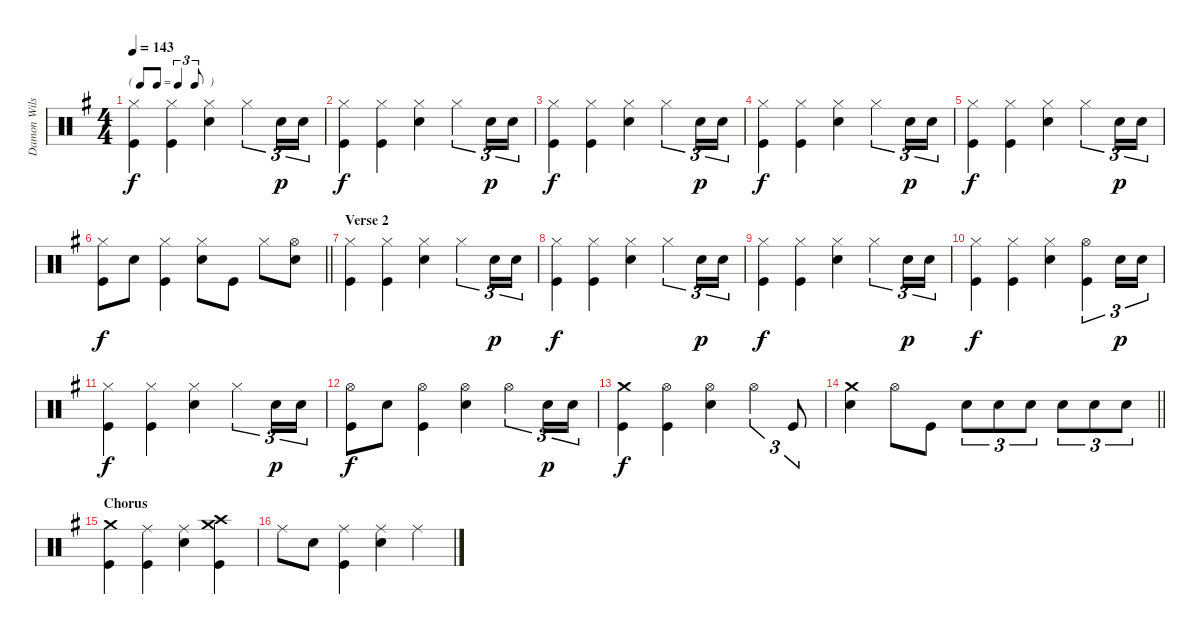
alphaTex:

\track ("Damon Wilson" "Damon Wils") {instrument percussion}
\staff {score}
\articulation defaults
\ts (4 4)
\tf triplet8th
\tempo 143
\clef neutral
\ks g
("Hi-Hat (closed)" "Kick (hit)").4{dy f} ("Hi-Hat (closed)" "Kick (hit)").4 ("Hi-Hat (closed)" "Electric Snare (hit)").4 "Hi-Hat (closed)".4{tu (3 2)} "Electric Snare (hit)".16{tu (3 2) dy p} "Electric Snare (hit)".16{tu (3 2)} |
("Hi-Hat (closed)" "Kick (hit)").4{dy f} ("Hi-Hat (closed)" "Kick (hit)").4 ("Hi-Hat (closed)" "Electric Snare (hit)").4 "Hi-Hat (closed)".4{tu (3 2)} "Electric Snare (hit)".16{tu (3 2) dy p} "Electric Snare (hit)".16{tu (3 2)} |
("Hi-Hat (closed)" "Kick (hit)").4{dy f} ("Hi-Hat (closed)" "Kick (hit)").4 ("Hi-Hat (closed)" "Electric Snare (hit)").4 "Hi-Hat (closed)".4{tu (3 2)} "Electric Snare (hit)".16{tu (3 2) dy p} "Electric Snare (hit)".16{tu (3 2)} |
("Hi-Hat (closed)" "Kick (hit)").4{dy f} ("Hi-Hat (closed)" "Kick (hit)").4 ("Hi-Hat (closed)" "Electric Snare (hit)").4 "Hi-Hat (closed)".4{tu (3 2)} "Electric Snare (hit)".16{tu (3 2) dy p} "Electric Snare (hit)".16{tu (3 2)} |
("Hi-Hat (closed)" "Kick (hit)").4{dy f} ("Hi-Hat (closed)" "Kick (hit)").4 ("Hi-Hat (closed)" "Electric Snare (hit)").4 "Hi-Hat (closed)".4{tu (3 2)} "Electric Snare (hit)".16{tu (3 2) dy p} "Electric Snare (hit)".16{tu (3 2)} |
\barLineRight lightlight
("Hi-Hat (closed)" "Kick (hit)").8{dy f} "Electric Snare (hit)".8 ("Hi-Hat (closed)" "Kick (hit)").4 ("Hi-Hat (closed)" "Electric Snare (hit)").8 "Kick (hit)".8 "Hi-Hat (closed)".8 ("Hi-Hat (open)" "Electric Snare (hit)").8 |
\section ("" "Verse 2")
("Hi-Hat (closed)" "Kick (hit)").4 ("Hi-Hat (closed)" "Kick (hit)").4 ("Hi-Hat (closed)" "Electric Snare (hit)").4 "Hi-Hat (closed)".4{tu (3 2)} "Electric Snare (hit)".16{tu (3 2) dy p} "Electric Snare (hit)".16{tu (3 2)} |
("Hi-Hat (closed)" "Kick (hit)").4{dy f} ("Hi-Hat (closed)" "Kick (hit)").4 ("Hi-Hat (closed)" "Electric Snare (hit)").4 "Hi-Hat (closed)".4{tu (3 2)} "Electric Snare (hit)".16{tu (3 2) dy p} "Electric Snare (hit)".16{tu (3 2)} |
("Hi-Hat (closed)" "Kick (hit)").4{dy f} ("Hi-Hat (closed)" "Kick (hit)").4 ("Hi-Hat (closed)" "Electric Snare (hit)").4 "Hi-Hat (closed)".4{tu (3 2)} "Electric Snare (hit)".16{tu (3 2) dy p} "Electric Snare (hit)".16{tu (3 2)} |
("Hi-Hat (closed)" "Kick (hit)").4{dy f} ("Hi-Hat (closed)" "Kick (hit)").4 ("Hi-Hat (closed)" "Electric Snare (hit)").4 ("Hi-Hat (open)" "Kick (hit)").4{tu (3 2)} "Electric Snare (hit)".16{tu (3 2) dy p} "Electric Snare (hit)".16{tu (3 2)} |
("Hi-Hat (closed)" "Kick (hit)").4{dy f} ("Hi-Hat (closed)" "Kick (hit)").4 ("Hi-Hat (closed)" "Electric Snare (hit)").4 "Hi-Hat (closed)".4{tu (3 2)} "Electric Snare (hit)".16{tu (3 2) dy p} "Electric Snare (hit)".16{tu (3 2)} |
("Hi-Hat (open)" "Kick (hit)").8{dy f} "Electric Snare (hit)".8 ("Hi-Hat (open)" "Kick (hit)").4 ("Hi-Hat (open)" "Electric Snare (hit)").4 "Hi-Hat (open)".4{tu (3 2)} "Electric Snare (hit)".16{tu (3 2) dy p} "Electric Snare (hit)".16{tu (3 2)} |
("Crash medium (hit)" "Kick (hit)").4{dy f} ("Hi-Hat (open)" "Kick (hit)").4 ("Hi-Hat (open)" "Electric Snare (hit)").4 "Hi-Hat (open)".4{tu (3 2)} "Kick (hit)".8{tu (3 2)} |
\barLineRight lightlight
("Crash medium (hit)" "Electric Snare (hit)").4 "Hi-Hat (open)".8 "Kick (hit)".8 "Electric Snare (hit)".8{tu (3 2)} "Electric Snare (hit)".8{tu (3 2)} "Electric Snare (hit)".8{tu (3 2)} "Electric Snare (hit)".8{tu (3 2)} "Electric Snare (hit)".8{tu (3 2)} "Electric Snare (hit)".8{tu (3 2)} |
\section ("" "Chorus")
("Crash medium (hit)" "Kick (hit)").4 ("Ride (middle)" "Kick (hit)").4 ("Ride (middle)" "Electric Snare (hit)").4 ("Crash high (hit)" "Crash medium (hit)" "Kick (hit)").4 |
"Ride (middle)".8 "Electric Snare (hit)".8 ("Ride (middle)" "Kick (hit)").4 ("Ride (middle)" "Electric Snare (hit)").4 "Ride (middle)".4
